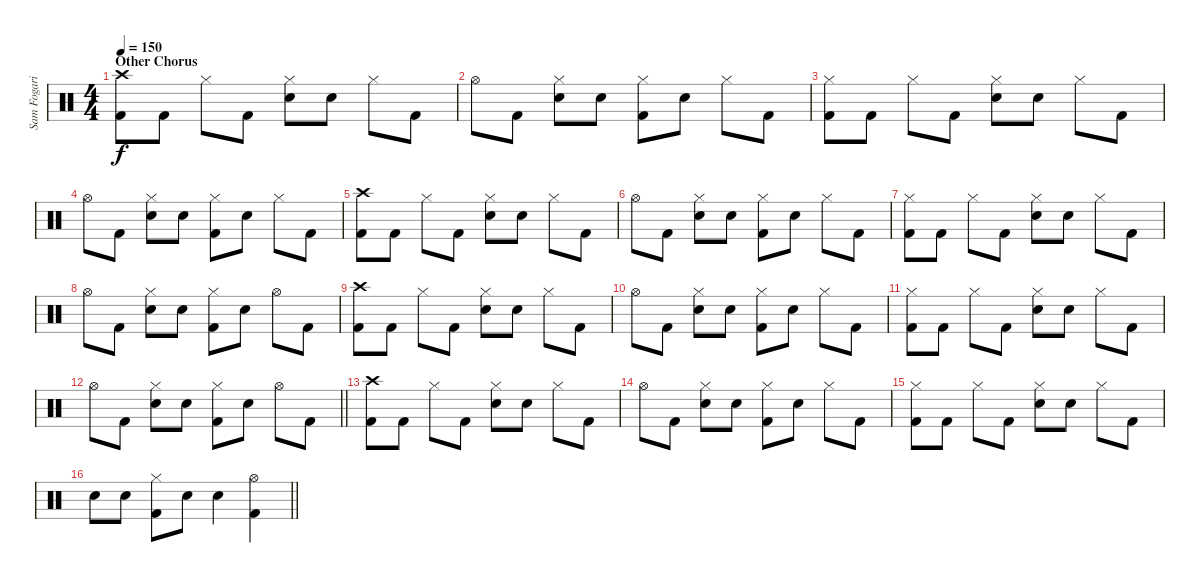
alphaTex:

\track ("Sam Fogarino" "Sam Fogari") {instrument percussion}
\staff {score}
\articulation defaults
\ts (4 4)
\section ("" "Other Chorus")
\tempo 150
\clef neutral
\ks c
("Crash high (hit)" "Kick (hit) 2").8{dy f} "Kick (hit) 2".8 "Hi-Hat (closed)".8 "Kick (hit) 2".8 ("Hi-Hat (closed)" "Electric Snare (hit)").8 "Electric Snare (hit)".8 "Hi-Hat (closed)".8 "Kick (hit) 2".8 |
"Hi-Hat (open)".8 "Kick (hit) 2".8 ("Hi-Hat (closed)" "Electric Snare (hit)").8 "Electric Snare (hit)".8 ("Hi-Hat (closed)" "Kick (hit) 2").8 "Electric Snare (hit)".8 "Hi-Hat (closed)".8 "Kick (hit) 2".8 |
("Hi-Hat (closed)" "Kick (hit) 2").8 "Kick (hit) 2".8 "Hi-Hat (closed)".8 "Kick (hit) 2".8 ("Hi-Hat (closed)" "Electric Snare (hit)").8 "Electric Snare (hit)".8 "Hi-Hat (closed)".8 "Kick (hit) 2".8 |
"Hi-Hat (open)".8 "Kick (hit) 2".8 ("Hi-Hat (closed)" "Electric Snare (hit)").8 "Electric Snare (hit)".8 ("Hi-Hat (closed)" "Kick (hit) 2").8 "Electric Snare (hit)".8 "Hi-Hat (closed)".8 "Kick (hit) 2".8 |
("Crash high (hit)" "Kick (hit) 2").8 "Kick (hit) 2".8 "Hi-Hat (closed)".8 "Kick (hit) 2".8 ("Hi-Hat (closed)" "Electric Snare (hit)").8 "Electric Snare (hit)".8 "Hi-Hat (closed)".8 "Kick (hit) 2".8 |
"Hi-Hat (open)".8 "Kick (hit) 2".8 ("Hi-Hat (closed)" "Electric Snare (hit)").8 "Electric Snare (hit)".8 ("Hi-Hat (closed)" "Kick (hit) 2").8 "Electric Snare (hit)".8 "Hi-Hat (closed)".8 "Kick (hit) 2".8 |
("Hi-Hat (closed)" "Kick (hit) 2").8 "Kick (hit) 2".8 "Hi-Hat (closed)".8 "Kick (hit) 2".8 ("Hi-Hat (closed)" "Electric Snare (hit)").8 "Electric Snare (hit)".8 "Hi-Hat (closed)".8 "Kick (hit) 2".8 |
"Hi-Hat (open)".8 "Kick (hit) 2".8 ("Hi-Hat (closed)" "Electric Snare (hit)").8 "Electric Snare (hit)".8 ("Hi-Hat (closed)" "Kick (hit) 2").8 "Electric Snare (hit)".8 "Hi-Hat (open)".8 "Kick (hit) 2".8 |
("Crash high (hit)" "Kick (hit) 2").8 "Kick (hit) 2".8 "Hi-Hat (closed)".8 "Kick (hit) 2".8 ("Hi-Hat (closed)" "Electric Snare (hit)").8 "Electric Snare (hit)".8 "Hi-Hat (closed)".8 "Kick (hit) 2".8 |
"Hi-Hat (open)".8 "Kick (hit) 2".8 ("Hi-Hat (closed)" "Electric Snare (hit)").8 "Electric Snare (hit)".8 ("Hi-Hat (closed)" "Kick (hit) 2").8 "Electric Snare (hit)".8 "Hi-Hat (closed)".8 "Kick (hit) 2".8 |
("Hi-Hat (closed)" "Kick (hit) 2").8 "Kick (hit) 2".8 "Hi-Hat (closed)".8 "Kick (hit) 2".8 ("Hi-Hat (closed)" "Electric Snare (hit)").8 "Electric Snare (hit)".8 "Hi-Hat (closed)".8 "Kick (hit) 2".8 |
\barLineRight lightlight "Hi-Hat (open)".8 "Kick (hit) 2".8
("Hi-Hat (closed)" "Electric Snare (hit)").8 "Electric Snare (hit)".8 ("Hi-Hat (closed)" "Kick (hit) 2").8 "Electric Snare (hit)".8 "Hi-Hat (open)".8 "Kick (hit) 2".8 |
("Crash high (hit)" "Kick (hit) 2").8 "Kick (hit) 2".8 "Hi-Hat (closed)".8 "Kick (hit) 2".8 ("Hi-Hat (closed)" "Electric Snare (hit)").8 "Electric Snare (hit)".8 "Hi-Hat (closed)".8 "Kick (hit) 2".8 |
"Hi-Hat (open)".8 "Kick (hit) 2".8 ("Hi-Hat (closed)" "Electric Snare (hit)").8 "Electric Snare (hit)".8 ("Hi-Hat (closed)" "Kick (hit) 2").8 "Electric Snare (hit)".8 "Hi-Hat (closed)".8 "Kick (hit) 2".8 |
("Hi-Hat (closed)" "Kick (hit) 2").8 "Kick (hit) 2".8 "Hi-Hat (closed)".8 "Kick (hit) 2".8 ("Hi-Hat (closed)" "Electric Snare (hit)").8 "Electric Snare (hit)".8 "Hi-Hat (closed)".8 "Kick (hit) 2".8 |
\barLineRight lightlight "Electric Snare (hit)".8 "Electric Snare (hit)".8
("Hi-Hat (closed)" "Kick (hit) 2").8 "Electric Snare (hit)".8 "Electric Snare (hit)".4 ("Hi-Hat (open)" "Kick (hit) 2").4
